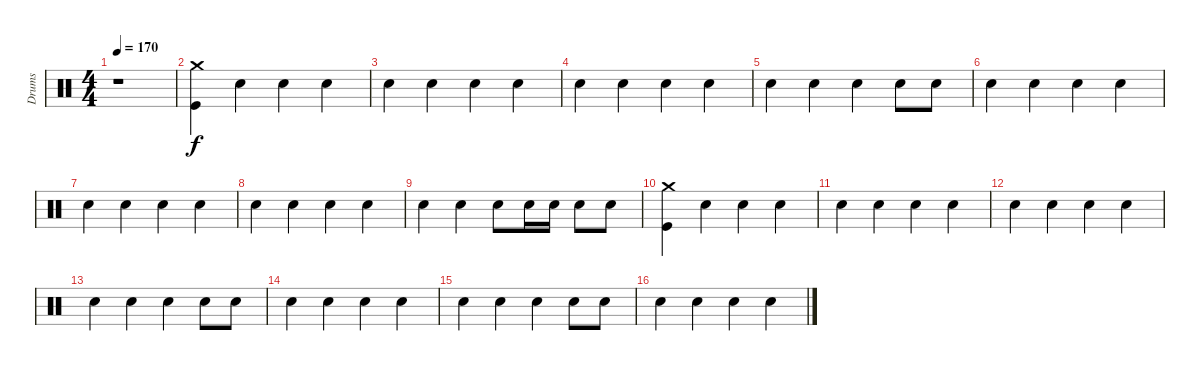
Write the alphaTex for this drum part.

\track ("Drums" "Drums") {instrument percussion}
\staff {score}
\articulation defaults
\ts (4 4)
\tempo 170
\clef neutral
\ks c
r.1{dy f} |
("Crash medium (hit)" "Kick (hit)").4{volume 12} "Hand Clap (hit)".4 "Hand Clap (hit)".4 "Hand Clap (hit)".4 |
"Hand Clap (hit)".4 "Hand Clap (hit)".4 "Hand Clap (hit)".4 "Hand Clap (hit)".4 |
"Hand Clap (hit)".4 "Hand Clap (hit)".4 "Hand Clap (hit)".4 "Hand Clap (hit)".4 |
"Hand Clap (hit)".4 "Hand Clap (hit)".4 "Hand Clap (hit)".4 "Hand Clap (hit)".8 "Hand Clap (hit)".8 |
"Hand Clap (hit)".4 "Hand Clap (hit)".4 "Hand Clap (hit)".4 "Hand Clap (hit)".4 |
"Hand Clap (hit)".4 "Hand Clap (hit)".4 "Hand Clap (hit)".4 "Hand Clap (hit)".4 |
"Hand Clap (hit)".4 "Hand Clap (hit)".4 "Hand Clap (hit)".4 "Hand Clap (hit)".4 |
"Hand Clap (hit)".4 "Hand Clap (hit)".4 "Hand Clap (hit)".8 "Hand Clap (hit)".16 "Hand Clap (hit)".16 "Hand Clap (hit)".8 "Hand Clap (hit)".8 |
("Crash medium (hit)" "Kick (hit)").4 "Hand Clap (hit)".4 "Hand Clap (hit)".4 "Hand Clap (hit)".4 |
"Hand Clap (hit)".4 "Hand Clap (hit)".4 "Hand Clap (hit)".4 "Hand Clap (hit)".4 |
"Hand Clap (hit)".4 "Hand Clap (hit)".4 "Hand Clap (hit)".4 "Hand Clap (hit)".4 |
"Hand Clap (hit)".4 "Hand Clap (hit)".4 "Hand Clap (hit)".4 "Hand Clap (hit)".8 "Hand Clap (hit)".8 |
"Hand Clap (hit)".4 "Hand Clap (hit)".4 "Hand Clap (hit)".4 "Hand Clap (hit)".4 |
"Hand Clap (hit)".4 "Hand Clap (hit)".4 "Hand Clap (hit)".4 "Hand Clap (hit)".8 "Hand Clap (hit)".8 |
"Hand Clap (hit)".4 "Hand Clap (hit)".4 "Hand Clap (hit)".4 "Hand Clap (hit)".4
